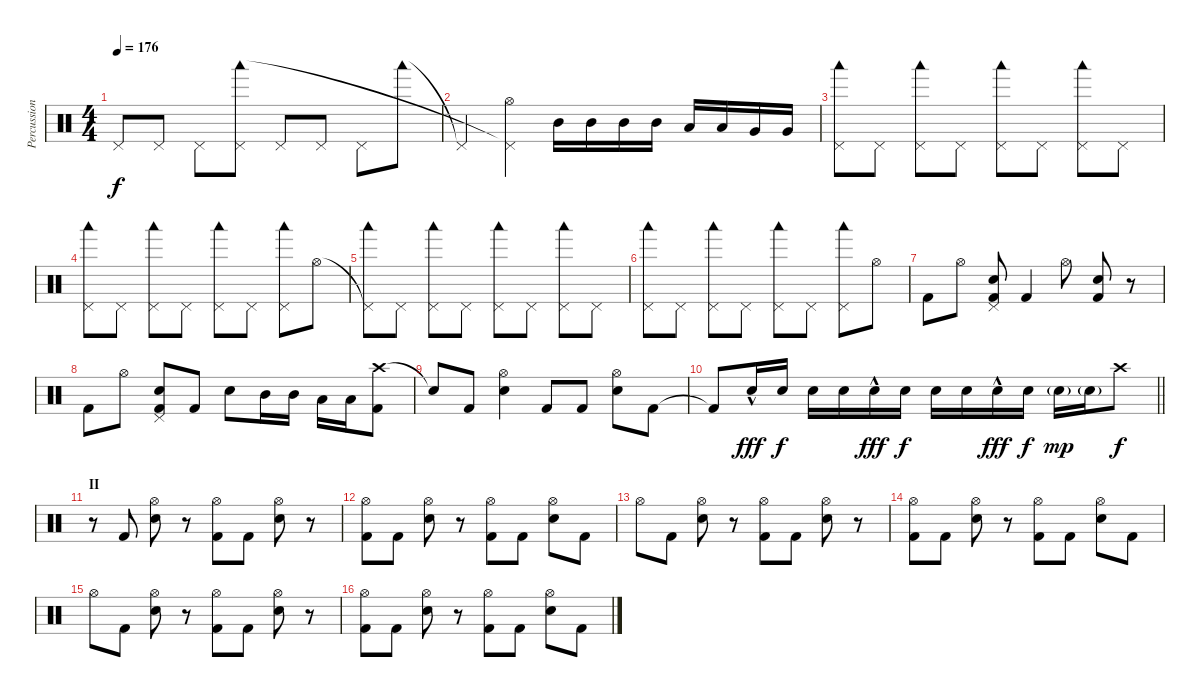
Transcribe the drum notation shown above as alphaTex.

\track ("Percussion" "Percussion") {instrument percussion}
\staff {score}
\articulation defaults
\ts (4 4)
\tempo 176
\clef neutral
\ks c "Pedal Hi-Hat (hit)"{t}.8{dy f} "Pedal Hi-Hat (hit)".8 "Pedal Hi-Hat (hit)".8
("Pedal Hi-Hat (hit)" "Woodblock low (hit)").8 "Pedal Hi-Hat (hit)".8 "Pedal Hi-Hat (hit)".8 "Pedal Hi-Hat (hit)".8 "Woodblock low (hit)".8 |
"Pedal Hi-Hat (hit)"{t}.4 ("Hi-Hat (open)" "Pedal Hi-Hat (hit)"{t}).4 "Mid Tom (hit)".16 "Mid Tom (hit)".16 "Mid Tom (hit)".16 "Mid Tom (hit)".16 "Low Tom (hit)".16 "Low Tom (hit)".16 "Very Low Tom (hit)".16 "Very Low Tom (hit)".16 |
("Pedal Hi-Hat (hit)" "Woodblock low (hit)").8 "Pedal Hi-Hat (hit)".8 ("Pedal Hi-Hat (hit)" "Woodblock low (hit)").8 "Pedal Hi-Hat (hit)".8 ("Pedal Hi-Hat (hit)" "Woodblock low (hit)").8 "Pedal Hi-Hat (hit)".8 ("Pedal Hi-Hat (hit)" "Woodblock low (hit)").8 "Pedal Hi-Hat (hit)".8 |
("Pedal Hi-Hat (hit)" "Woodblock low (hit)").8 "Pedal Hi-Hat (hit)".8 ("Pedal Hi-Hat (hit)" "Woodblock low (hit)").8 "Pedal Hi-Hat (hit)".8 ("Pedal Hi-Hat (hit)" "Woodblock low (hit)").8 "Pedal Hi-Hat (hit)".8 ("Pedal Hi-Hat (hit)" "Woodblock low (hit)").8 "Hi-Hat (open)".8 |
("Pedal Hi-Hat (hit)"{t} "Woodblock low (hit)").8 "Pedal Hi-Hat (hit)".8 ("Pedal Hi-Hat (hit)" "Woodblock low (hit)").8 "Pedal Hi-Hat (hit)".8 ("Pedal Hi-Hat (hit)" "Woodblock low (hit)").8 "Pedal Hi-Hat (hit)".8 ("Pedal Hi-Hat (hit)" "Woodblock low (hit)").8 "Pedal Hi-Hat (hit)".8 |
("Pedal Hi-Hat (hit)" "Woodblock low (hit)").8 "Pedal Hi-Hat (hit)".8 ("Pedal Hi-Hat (hit)" "Woodblock low (hit)").8 "Pedal Hi-Hat (hit)".8 ("Pedal Hi-Hat (hit)" "Woodblock low (hit)").8 "Pedal Hi-Hat (hit)".8 ("Pedal Hi-Hat (hit)" "Woodblock low (hit)").8 "Hi-Hat (open)".8 |
"Kick (hit) 2".8 "Hi-Hat (open)".8 ("Pedal Hi-Hat (hit)" "Electric Snare (hit)" "Kick (hit) 2").8 "Kick (hit) 2".4 "Hi-Hat (open)".8 ("Electric Snare (hit)" "Kick (hit) 2").8 r.8 |
"Kick (hit) 2".8 "Hi-Hat (open)".8 ("Pedal Hi-Hat (hit)" "Electric Snare (hit)" "Kick (hit) 2").8 "Kick (hit) 2".8 "Electric Snare (hit)".8 "Mid Tom (hit)".16 "Mid Tom (hit)".16 "Low Tom (hit)".16 "Low Tom (hit)".16 ("Crash high (hit)" "Kick (hit) 2").8 |
"Snare (hit)"{t}.8 "Kick (hit) 2".8 ("Hi-Hat (open)" "Electric Snare (hit)").4 "Kick (hit) 2".8 "Kick (hit) 2".8 ("Hi-Hat (open)" "Electric Snare (hit)").8 "Kick (hit) 2".8 |
\barLineRight lightlight "Kick (hit) 2"{t}.8 "Electric Snare (hit)"{hac}.16{dy fff volume 7} "Electric Snare (hit)".16{dy f} "Electric Snare (hit)".16 "Electric Snare (hit)".16 "Electric Snare (hit)"{hac}.16{dy fff volume 10} "Electric Snare (hit)".16{dy f} "Electric Snare (hit)".16 "Electric Snare (hit)".16 "Electric Snare (hit)"{hac}.16{dy fff volume 16} "Electric Snare (hit)".16{dy f} "Snare (hit)"{g}.16{dy mp} "Electric Snare (hit)"{g}.16 "Crash high (hit)".8{dy f}
|
\section ("" "II")
r.8 "Kick (hit) 2".8 ("Hi-Hat (open)" "Electric Snare (hit)").8 r.8 ("Hi-Hat (open)" "Kick (hit) 2").8 "Kick (hit) 2".8 ("Hi-Hat (open)" "Electric Snare (hit)").8 r.8 |
("Hi-Hat (open)" "Kick (hit) 2").8 "Kick (hit) 2".8 ("Hi-Hat (open)" "Electric Snare (hit)").8 r.8 ("Hi-Hat (open)" "Kick (hit) 2").8 "Kick (hit) 2".8 ("Hi-Hat (open)" "Electric Snare (hit)").8 "Kick (hit) 2".8 |
"Hi-Hat (open)".8 "Kick (hit) 2".8 ("Hi-Hat (open)" "Electric Snare (hit)").8 r.8 ("Hi-Hat (open)" "Kick (hit) 2").8 "Kick (hit) 2".8 ("Hi-Hat (open)" "Electric Snare (hit)").8 r.8 |
("Hi-Hat (open)" "Kick (hit) 2").8 "Kick (hit) 2".8 ("Hi-Hat (open)" "Electric Snare (hit)").8 r.8 ("Hi-Hat (open)" "Kick (hit) 2").8 "Kick (hit) 2".8 ("Hi-Hat (open)" "Electric Snare (hit)").8 "Kick (hit) 2".8 |
"Hi-Hat (open)".8 "Kick (hit) 2".8 ("Hi-Hat (open)" "Electric Snare (hit)").8 r.8 ("Hi-Hat (open)" "Kick (hit) 2").8 "Kick (hit) 2".8 ("Hi-Hat (open)" "Electric Snare (hit)").8 r.8 |
("Hi-Hat (open)" "Kick (hit) 2").8 "Kick (hit) 2".8 ("Hi-Hat (open)" "Electric Snare (hit)").8 r.8 ("Hi-Hat (open)" "Kick (hit) 2").8 "Kick (hit) 2".8 ("Hi-Hat (open)" "Electric Snare (hit)").8 "Kick (hit) 2".8
